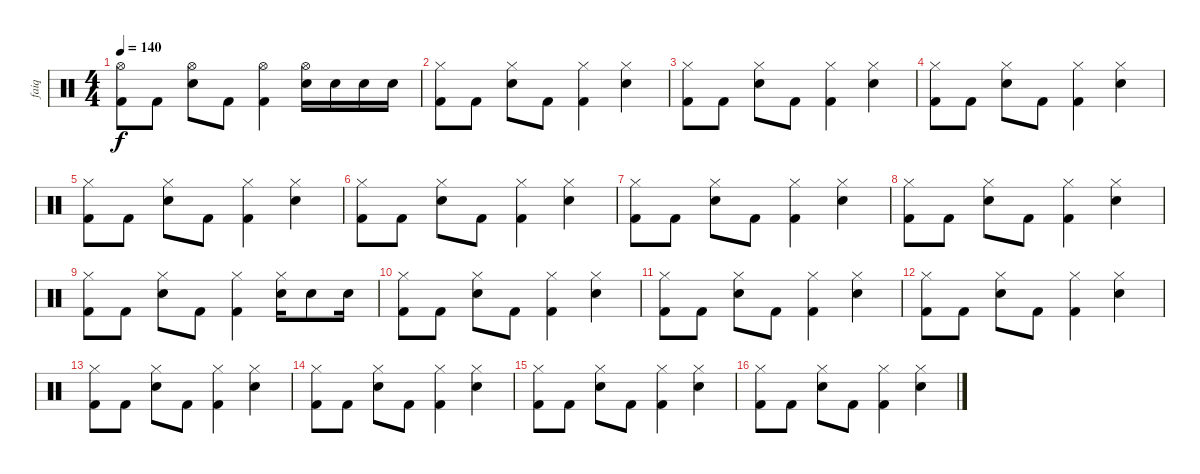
\track ("faiq" "faiq") {instrument percussion}
\staff {score}
\articulation defaults
\ts (4 4)
\tempo 140
\clef neutral
\ks c
("Hi-Hat (open)" "Kick (hit) 2").8{dy f} "Kick (hit) 2".8 ("Hi-Hat (open)" "Electric Snare (hit)").8 "Kick (hit) 2".8 ("Hi-Hat (open)" "Kick (hit) 2").4 ("Hi-Hat (open)" "Electric Snare (hit)").16 "Electric Snare (hit)".16 "Electric Snare (hit)".16 "Electric Snare (hit)".16 |
("Hi-Hat (closed)" "Kick (hit) 2").8 "Kick (hit) 2".8 ("Hi-Hat (closed)" "Electric Snare (hit)").8 "Kick (hit) 2".8 ("Hi-Hat (closed)" "Kick (hit) 2").4 ("Hi-Hat (closed)" "Electric Snare (hit)").4 |
("Hi-Hat (closed)" "Kick (hit) 2").8 "Kick (hit) 2".8 ("Hi-Hat (closed)" "Electric Snare (hit)").8 "Kick (hit) 2".8 ("Hi-Hat (closed)" "Kick (hit) 2").4 ("Hi-Hat (closed)" "Electric Snare (hit)").4 |
("Hi-Hat (closed)" "Kick (hit) 2").8 "Kick (hit) 2".8 ("Hi-Hat (closed)" "Electric Snare (hit)").8 "Kick (hit) 2".8 ("Hi-Hat (closed)" "Kick (hit) 2").4 ("Hi-Hat (closed)" "Electric Snare (hit)").4 |
("Hi-Hat (closed)" "Kick (hit) 2").8 "Kick (hit) 2".8 ("Hi-Hat (closed)" "Electric Snare (hit)").8 "Kick (hit) 2".8 ("Hi-Hat (closed)" "Kick (hit) 2").4 ("Hi-Hat (closed)" "Electric Snare (hit)").4 |
("Hi-Hat (closed)" "Kick (hit) 2").8 "Kick (hit) 2".8 ("Hi-Hat (closed)" "Electric Snare (hit)").8 "Kick (hit) 2".8 ("Hi-Hat (closed)" "Kick (hit) 2").4 ("Hi-Hat (closed)" "Electric Snare (hit)").4 |
("Hi-Hat (closed)" "Kick (hit) 2").8 "Kick (hit) 2".8 ("Hi-Hat (closed)" "Electric Snare (hit)").8 "Kick (hit) 2".8 ("Hi-Hat (closed)" "Kick (hit) 2").4 ("Hi-Hat (closed)" "Electric Snare (hit)").4 |
("Hi-Hat (closed)" "Kick (hit) 2").8 "Kick (hit) 2".8 ("Hi-Hat (closed)" "Electric Snare (hit)").8 "Kick (hit) 2".8 ("Hi-Hat (closed)" "Kick (hit) 2").4 ("Hi-Hat (closed)" "Electric Snare (hit)").4 |
("Hi-Hat (closed)" "Kick (hit) 2").8 "Kick (hit) 2".8 ("Hi-Hat (closed)" "Electric Snare (hit)").8 "Kick (hit) 2".8 ("Hi-Hat (closed)" "Kick (hit) 2").4 ("Hi-Hat (closed)" "Electric Snare (hit)").16 "Electric Snare (hit)".8 "Electric Snare (hit)".16 |
("Hi-Hat (closed)" "Kick (hit) 2").8 "Kick (hit) 2".8 ("Hi-Hat (closed)" "Electric Snare (hit)").8 "Kick (hit) 2".8 ("Hi-Hat (closed)" "Kick (hit) 2").4 ("Hi-Hat (closed)" "Electric Snare (hit)").4 |
("Hi-Hat (closed)" "Kick (hit) 2").8 "Kick (hit) 2".8 ("Hi-Hat (closed)" "Electric Snare (hit)").8 "Kick (hit) 2".8 ("Hi-Hat (closed)" "Kick (hit) 2").4 ("Hi-Hat (closed)" "Electric Snare (hit)").4 |
("Hi-Hat (closed)" "Kick (hit) 2").8 "Kick (hit) 2".8 ("Hi-Hat (closed)" "Electric Snare (hit)").8 "Kick (hit) 2".8 ("Hi-Hat (closed)" "Kick (hit) 2").4 ("Hi-Hat (closed)" "Electric Snare (hit)").4 |
("Hi-Hat (closed)" "Kick (hit) 2").8 "Kick (hit) 2".8 ("Hi-Hat (closed)" "Electric Snare (hit)").8 "Kick (hit) 2".8 ("Hi-Hat (closed)" "Kick (hit) 2").4 ("Hi-Hat (closed)" "Electric Snare (hit)").4 |
("Hi-Hat (closed)" "Kick (hit) 2").8 "Kick (hit) 2".8 ("Hi-Hat (closed)" "Electric Snare (hit)").8 "Kick (hit) 2".8 ("Hi-Hat (closed)" "Kick (hit) 2").4 ("Hi-Hat (closed)" "Electric Snare (hit)").4 |
("Hi-Hat (closed)" "Kick (hit) 2").8 "Kick (hit) 2".8 ("Hi-Hat (closed)" "Electric Snare (hit)").8 "Kick (hit) 2".8 ("Hi-Hat (closed)" "Kick (hit) 2").4 ("Hi-Hat (closed)" "Electric Snare (hit)").4 |
("Hi-Hat (closed)" "Kick (hit) 2").8 "Kick (hit) 2".8 ("Hi-Hat (closed)" "Electric Snare (hit)").8 "Kick (hit) 2".8 ("Hi-Hat (closed)" "Kick (hit) 2").4 ("Hi-Hat (closed)" "Electric Snare (hit)").4
